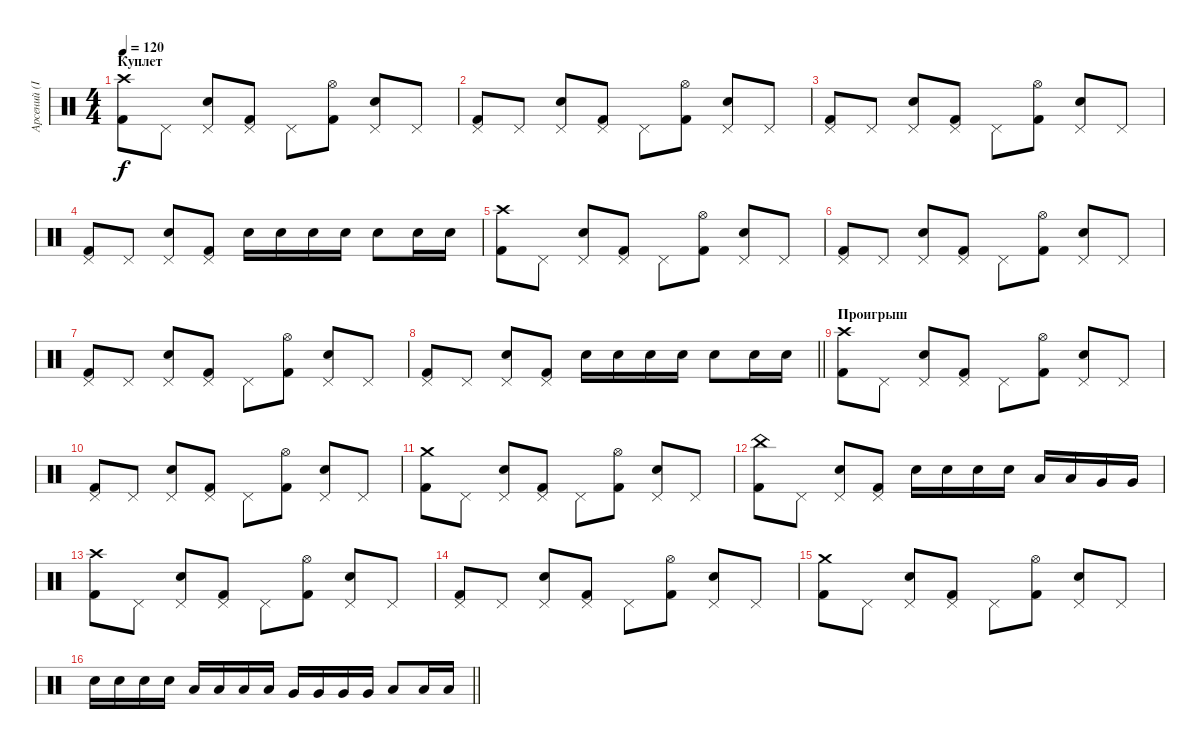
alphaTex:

\track ("Арсений (Idler) Ударные" "Арсений (I") {instrument percussion}
\staff {score}
\articulation defaults
\ts (4 4)
\section ("" "Куплет")
\tempo 120
\clef neutral
\ks c
("Crash high (hit)" "Kick (hit) 2").8{dy f} "Pedal Hi-Hat (hit)".8 ("Pedal Hi-Hat (hit)" "Snare (hit) 2").8 ("Pedal Hi-Hat (hit)" "Kick (hit) 2").8 "Pedal Hi-Hat (hit)".8 ("Hi-Hat (open)" "Kick (hit) 2").8 ("Pedal Hi-Hat (hit)" "Snare (hit) 2").8 "Pedal Hi-Hat (hit)".8 |
("Pedal Hi-Hat (hit)" "Kick (hit) 2").8 "Pedal Hi-Hat (hit)".8 ("Pedal Hi-Hat (hit)" "Snare (hit) 2").8 ("Pedal Hi-Hat (hit)" "Kick (hit) 2").8 "Pedal Hi-Hat (hit)".8 ("Hi-Hat (open)" "Kick (hit) 2").8 ("Pedal Hi-Hat (hit)" "Snare (hit) 2").8 "Pedal Hi-Hat (hit)".8 |
("Pedal Hi-Hat (hit)" "Kick (hit) 2").8 "Pedal Hi-Hat (hit)".8 ("Pedal Hi-Hat (hit)" "Snare (hit) 2").8 ("Pedal Hi-Hat (hit)" "Kick (hit) 2").8 "Pedal Hi-Hat (hit)".8 ("Hi-Hat (open)" "Kick (hit) 2").8 ("Pedal Hi-Hat (hit)" "Snare (hit) 2").8 "Pedal Hi-Hat (hit)".8 |
("Pedal Hi-Hat (hit)" "Kick (hit) 2").8 "Pedal Hi-Hat (hit)".8 ("Pedal Hi-Hat (hit)" "Snare (hit) 2").8 ("Pedal Hi-Hat (hit)" "Kick (hit) 2").8 "Snare (hit) 2".16 "Snare (hit) 2".16 "Snare (hit) 2".16 "Snare (hit) 2".16 "Snare (hit) 2".8 "Snare (hit) 2".16 "Snare (hit) 2".16 |
("Crash high (hit)" "Kick (hit) 2").8 "Pedal Hi-Hat (hit)".8 ("Pedal Hi-Hat (hit)" "Snare (hit) 2").8 ("Pedal Hi-Hat (hit)" "Kick (hit) 2").8 "Pedal Hi-Hat (hit)".8 ("Hi-Hat (open)" "Kick (hit) 2").8 ("Pedal Hi-Hat (hit)" "Snare (hit) 2").8 "Pedal Hi-Hat (hit)".8 |
("Pedal Hi-Hat (hit)" "Kick (hit) 2").8 "Pedal Hi-Hat (hit)".8 ("Pedal Hi-Hat (hit)" "Snare (hit) 2").8 ("Pedal Hi-Hat (hit)" "Kick (hit) 2").8 "Pedal Hi-Hat (hit)".8 ("Hi-Hat (open)" "Kick (hit) 2").8 ("Pedal Hi-Hat (hit)" "Snare (hit) 2").8 "Pedal Hi-Hat (hit)".8 |
("Pedal Hi-Hat (hit)" "Kick (hit) 2").8 "Pedal Hi-Hat (hit)".8 ("Pedal Hi-Hat (hit)" "Snare (hit) 2").8 ("Pedal Hi-Hat (hit)" "Kick (hit) 2").8 "Pedal Hi-Hat (hit)".8 ("Hi-Hat (open)" "Kick (hit) 2").8 ("Pedal Hi-Hat (hit)" "Snare (hit) 2").8 "Pedal Hi-Hat (hit)".8 |
\barLineRight lightlight
("Pedal Hi-Hat (hit)" "Kick (hit) 2").8 "Pedal Hi-Hat (hit)".8 ("Pedal Hi-Hat (hit)" "Snare (hit) 2").8 ("Pedal Hi-Hat (hit)" "Kick (hit) 2").8 "Snare (hit) 2".16 "Snare (hit) 2".16 "Snare (hit) 2".16 "Snare (hit) 2".16 "Snare (hit) 2".8 "Snare (hit) 2".16 "Snare (hit) 2".16 |
\section ("" "Проигрыш")
("Crash high (hit)" "Kick (hit) 2").8 "Pedal Hi-Hat (hit)".8 ("Pedal Hi-Hat (hit)" "Snare (hit) 2").8 ("Pedal Hi-Hat (hit)" "Kick (hit) 2").8 "Pedal Hi-Hat (hit)".8 ("Hi-Hat (open)" "Kick (hit) 2").8 ("Pedal Hi-Hat (hit)" "Snare (hit) 2").8 "Pedal Hi-Hat (hit)".8 |
("Pedal Hi-Hat (hit)" "Kick (hit) 2").8 "Pedal Hi-Hat (hit)".8 ("Pedal Hi-Hat (hit)" "Snare (hit) 2").8 ("Pedal Hi-Hat (hit)" "Kick (hit) 2").8 "Pedal Hi-Hat (hit)".8 ("Hi-Hat (open)" "Kick (hit) 2").8 ("Pedal Hi-Hat (hit)" "Snare (hit) 2").8 "Pedal Hi-Hat (hit)".8 |
("Crash medium (hit)" "Kick (hit) 2").8 "Pedal Hi-Hat (hit)".8 ("Pedal Hi-Hat (hit)" "Snare (hit) 2").8 ("Pedal Hi-Hat (hit)" "Kick (hit) 2").8 "Pedal Hi-Hat (hit)".8 ("Hi-Hat (open)" "Kick (hit) 2").8 ("Pedal Hi-Hat (hit)" "Snare (hit) 2").8 "Pedal Hi-Hat (hit)".8 |
("China (hit)" "Kick (hit) 2").8 "Pedal Hi-Hat (hit)".8 ("Pedal Hi-Hat (hit)" "Snare (hit) 2").8 ("Pedal Hi-Hat (hit)" "Kick (hit) 2").8 "Snare (hit) 2".16 "Snare (hit) 2".16 "Snare (hit) 2".16 "Snare (hit) 2".16 "Low Tom (hit)".16 "Low Tom (hit)".16 "Very Low Tom (hit)".16 "Very Low Tom (hit)".16 |
("Crash high (hit)" "Kick (hit) 2").8 "Pedal Hi-Hat (hit)".8 ("Pedal Hi-Hat (hit)" "Snare (hit) 2").8 ("Pedal Hi-Hat (hit)" "Kick (hit) 2").8 "Pedal Hi-Hat (hit)".8 ("Hi-Hat (open)" "Kick (hit) 2").8 ("Pedal Hi-Hat (hit)" "Snare (hit) 2").8 "Pedal Hi-Hat (hit)".8 |
("Pedal Hi-Hat (hit)" "Kick (hit) 2").8 "Pedal Hi-Hat (hit)".8 ("Pedal Hi-Hat (hit)" "Snare (hit) 2").8 ("Pedal Hi-Hat (hit)" "Kick (hit) 2").8 "Pedal Hi-Hat (hit)".8 ("Hi-Hat (open)" "Kick (hit) 2").8 ("Pedal Hi-Hat (hit)" "Snare (hit) 2").8 "Pedal Hi-Hat (hit)".8 |
("Crash medium (hit)" "Kick (hit) 2").8 "Pedal Hi-Hat (hit)".8 ("Pedal Hi-Hat (hit)" "Snare (hit) 2").8 ("Pedal Hi-Hat (hit)" "Kick (hit) 2").8 "Pedal Hi-Hat (hit)".8 ("Hi-Hat (open)" "Kick (hit) 2").8 ("Pedal Hi-Hat (hit)" "Snare (hit) 2").8 "Pedal Hi-Hat (hit)".8 |
\barLineRight lightlight "Snare (hit) 2".16 "Snare (hit) 2".16 "Snare (hit) 2".16 "Snare (hit) 2".16 "Low Tom (hit)".16 "Low Tom (hit)".16 "Low Tom (hit)".16 "Low Tom (hit)".16 "Very Low Tom (hit)".16 "Very Low Tom (hit)".16 "Very Low Tom (hit)".16 "Very Low Tom (hit)".16 "Low Floor Tom (hit)".8 "Low Floor Tom (hit)".16 "Low Floor Tom (hit)".16
